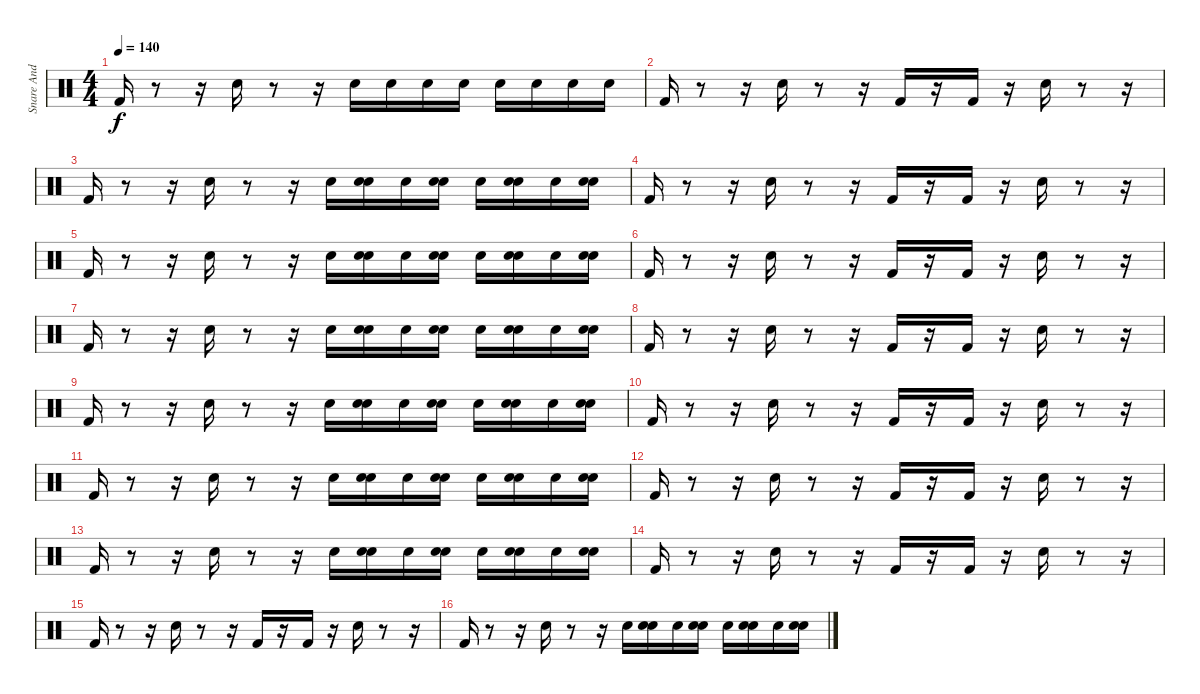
\track ("Snare And Bass Drums" "Snare And ") {instrument percussion}
\staff {score}
\articulation defaults
\ts (4 4)
\tempo 140
\clef neutral
\ks c "Kick (hit) 2".16{dy f}
r.8 r.16 "Snare (hit) 2".16 r.8 r.16 "Snare (hit) 2".16 "Snare (hit) 2".16 "Snare (hit) 2".16 "Snare (hit) 2".16 "Snare (hit) 2".16 "Snare (hit) 2".16 "Snare (hit) 2".16 "Snare (hit) 2".16 |
"Kick (hit) 2".16 r.8 r.16 "Snare (hit) 2".16 r.8 r.16 "Kick (hit) 2".16 r.16 "Kick (hit) 2".16 r.16 "Snare (hit) 2".16 r.8 r.16 |
"Kick (hit) 2".16 r.8 r.16 "Snare (hit) 2".16 r.8 r.16 "Snare (hit) 2".16 ("Snare (hit) 2" "Electric Snare (hit)").16 "Snare (hit) 2".16 ("Snare (hit) 2" "Electric Snare (hit)").16 "Snare (hit) 2".16 ("Snare (hit) 2" "Electric Snare (hit)").16 "Snare (hit) 2".16 ("Snare (hit) 2" "Electric Snare (hit)").16 |
"Kick (hit) 2".16 r.8 r.16 "Snare (hit) 2".16 r.8 r.16 "Kick (hit) 2".16 r.16 "Kick (hit) 2".16 r.16 "Snare (hit) 2".16 r.8 r.16 |
"Kick (hit) 2".16 r.8 r.16 "Snare (hit) 2".16 r.8 r.16 "Snare (hit) 2".16 ("Snare (hit) 2" "Electric Snare (hit)").16 "Snare (hit) 2".16 ("Snare (hit) 2" "Electric Snare (hit)").16 "Snare (hit) 2".16 ("Snare (hit) 2" "Electric Snare (hit)").16 "Snare (hit) 2".16 ("Snare (hit) 2" "Electric Snare (hit)").16 |
"Kick (hit) 2".16 r.8 r.16 "Snare (hit) 2".16 r.8 r.16 "Kick (hit) 2".16 r.16 "Kick (hit) 2".16 r.16 "Snare (hit) 2".16 r.8 r.16 |
"Kick (hit) 2".16 r.8 r.16 "Snare (hit) 2".16 r.8 r.16 "Snare (hit) 2".16 ("Snare (hit) 2" "Electric Snare (hit)").16 "Snare (hit) 2".16 ("Snare (hit) 2" "Electric Snare (hit)").16 "Snare (hit) 2".16 ("Snare (hit) 2" "Electric Snare (hit)").16 "Snare (hit) 2".16 ("Snare (hit) 2" "Electric Snare (hit)").16 |
"Kick (hit) 2".16 r.8 r.16 "Snare (hit) 2".16 r.8 r.16 "Kick (hit) 2".16 r.16 "Kick (hit) 2".16 r.16 "Snare (hit) 2".16 r.8 r.16 |
"Kick (hit) 2".16 r.8 r.16 "Snare (hit) 2".16 r.8 r.16 "Snare (hit) 2".16 ("Snare (hit) 2" "Electric Snare (hit)").16 "Snare (hit) 2".16 ("Snare (hit) 2" "Electric Snare (hit)").16 "Snare (hit) 2".16 ("Snare (hit) 2" "Electric Snare (hit)").16 "Snare (hit) 2".16 ("Snare (hit) 2" "Electric Snare (hit)").16 |
"Kick (hit) 2".16 r.8 r.16 "Snare (hit) 2".16 r.8 r.16 "Kick (hit) 2".16 r.16 "Kick (hit) 2".16 r.16 "Snare (hit) 2".16 r.8 r.16 |
"Kick (hit) 2".16 r.8 r.16 "Snare (hit) 2".16 r.8 r.16 "Snare (hit) 2".16 ("Snare (hit) 2" "Electric Snare (hit)").16 "Snare (hit) 2".16 ("Snare (hit) 2" "Electric Snare (hit)").16 "Snare (hit) 2".16 ("Snare (hit) 2" "Electric Snare (hit)").16 "Snare (hit) 2".16 ("Snare (hit) 2" "Electric Snare (hit)").16 |
"Kick (hit) 2".16 r.8 r.16 "Snare (hit) 2".16 r.8 r.16 "Kick (hit) 2".16 r.16 "Kick (hit) 2".16 r.16 "Snare (hit) 2".16 r.8 r.16 |
"Kick (hit) 2".16 r.8 r.16 "Snare (hit) 2".16 r.8 r.16 "Snare (hit) 2".16 ("Snare (hit) 2" "Electric Snare (hit)").16 "Snare (hit) 2".16 ("Snare (hit) 2" "Electric Snare (hit)").16 "Snare (hit) 2".16 ("Snare (hit) 2" "Electric Snare (hit)").16 "Snare (hit) 2".16 ("Snare (hit) 2" "Electric Snare (hit)").16 |
"Kick (hit) 2".16 r.8 r.16 "Snare (hit) 2".16 r.8 r.16 "Kick (hit) 2".16 r.16 "Kick (hit) 2".16 r.16 "Snare (hit) 2".16 r.8 r.16 |
"Kick (hit) 2".16 r.8 r.16 "Snare (hit) 2".16 r.8 r.16 "Kick (hit) 2".16 r.16 "Kick (hit) 2".16 r.16 "Snare (hit) 2".16 r.8 r.16 |
"Kick (hit) 2".16 r.8 r.16 "Snare (hit) 2".16 r.8 r.16 "Snare (hit) 2".16 ("Snare (hit) 2" "Electric Snare (hit)").16 "Snare (hit) 2".16 ("Snare (hit) 2" "Electric Snare (hit)").16 "Snare (hit) 2".16 ("Snare (hit) 2" "Electric Snare (hit)").16 "Snare (hit) 2".16 ("Snare (hit) 2" "Electric Snare (hit)").16
